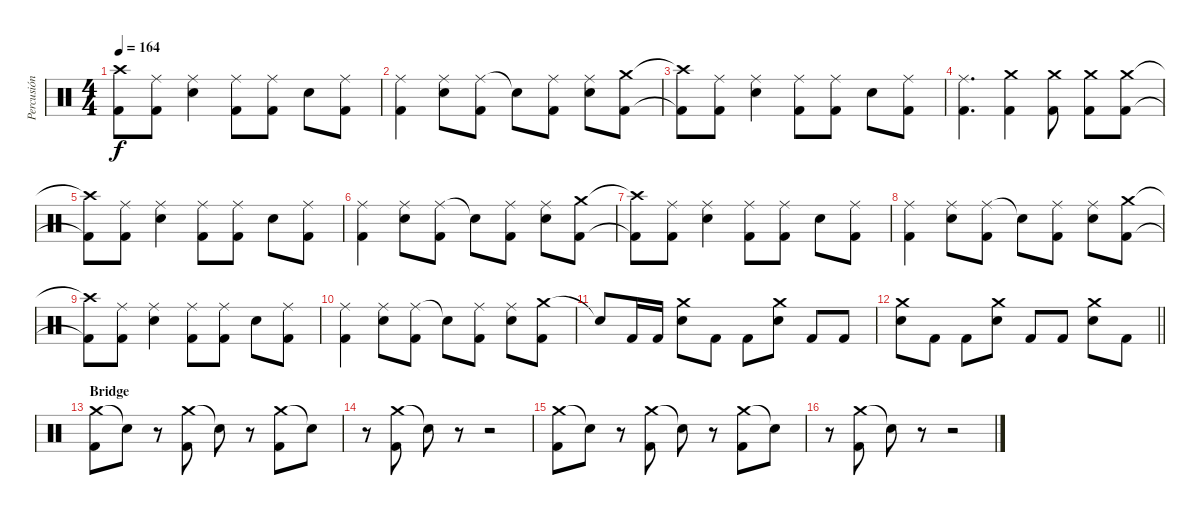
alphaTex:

\track ("Percusión" "Percusión") {instrument percussion}
\staff
\articulation defaults
\ts (4 4)
\tempo 164
\clef neutral
\ks c
("Crash high (hit)"{t} "Kick (hit) 2"{t}).8{dy f} ("Ride (middle)" "Kick (hit) 2").8 ("Ride (middle)" "Snare (hit) 2").4 ("Ride (middle)" "Kick (hit) 2").8 ("Ride (middle)" "Kick (hit) 2").8 "Snare (hit) 2".8 ("Ride (middle)" "Kick (hit) 2").8 |
("Ride (middle)" "Kick (hit) 2").4 ("Ride (middle)" "Snare (hit) 2").8 ("Ride (middle)" "Kick (hit) 2").8 "Snare (hit)"{t}.8 ("Ride (middle)" "Kick (hit) 2").8 ("Ride (middle)" "Snare (hit) 2").8 ("Crash medium (hit)" "Kick (hit) 2").8 |
("Crash high (hit)"{t} "Kick (hit) 2"{t}).8 ("Ride (middle)" "Kick (hit) 2").8 ("Ride (middle)" "Snare (hit) 2").4 ("Ride (middle)" "Kick (hit) 2").8 ("Ride (middle)" "Kick (hit) 2").8 "Snare (hit) 2".8 ("Ride (middle)" "Kick (hit) 2").8 |
("Ride (middle)" "Kick (hit) 2").4{d} ("Crash medium (hit)" "Kick (hit) 2").4 ("Crash medium (hit)" "Kick (hit) 2").8 ("Crash medium (hit)" "Kick (hit) 2").8 ("Crash medium (hit)" "Kick (hit) 2").8 |
("Crash high (hit)"{t} "Kick (hit) 2"{t}).8 ("Ride (middle)" "Kick (hit) 2").8 ("Ride (middle)" "Snare (hit) 2").4 ("Ride (middle)" "Kick (hit) 2").8 ("Ride (middle)" "Kick (hit) 2").8 "Snare (hit) 2".8 ("Ride (middle)" "Kick (hit) 2").8 |
("Ride (middle)" "Kick (hit) 2").4 ("Ride (middle)" "Snare (hit) 2").8 ("Ride (middle)" "Kick (hit) 2").8 "Snare (hit)"{t}.8 ("Ride (middle)" "Kick (hit) 2").8 ("Ride (middle)" "Snare (hit) 2").8 ("Crash medium (hit)" "Kick (hit) 2").8 |
("Crash high (hit)"{t} "Kick (hit) 2"{t}).8 ("Ride (middle)" "Kick (hit) 2").8 ("Ride (middle)" "Snare (hit) 2").4 ("Ride (middle)" "Kick (hit) 2").8 ("Ride (middle)" "Kick (hit) 2").8 "Snare (hit) 2".8 ("Ride (middle)" "Kick (hit) 2").8 |
("Ride (middle)" "Kick (hit) 2").4 ("Ride (middle)" "Snare (hit) 2").8 ("Ride (middle)" "Kick (hit) 2").8 "Snare (hit)"{t}.8 ("Ride (middle)" "Kick (hit) 2").8 ("Ride (middle)" "Snare (hit) 2").8 ("Crash medium (hit)" "Kick (hit) 2").8 |
("Crash high (hit)"{t} "Kick (hit) 2"{t}).8 ("Ride (middle)" "Kick (hit) 2").8 ("Ride (middle)" "Snare (hit) 2").4 ("Ride (middle)" "Kick (hit) 2").8 ("Ride (middle)" "Kick (hit) 2").8 "Snare (hit) 2".8 ("Ride (middle)" "Kick (hit) 2").8 |
("Ride (middle)" "Kick (hit) 2").4 ("Ride (middle)" "Snare (hit) 2").8 ("Ride (middle)" "Kick (hit) 2").8 "Snare (hit)"{t}.8 ("Ride (middle)" "Kick (hit) 2").8 ("Ride (middle)" "Snare (hit) 2").8 ("Crash medium (hit)" "Kick (hit) 2").8 |
"Snare (hit)"{t}.8 "Kick (hit) 2".16 "Kick (hit) 2".16 ("Crash medium (hit)" "Snare (hit) 2").8 "Kick (hit) 2".8 "Kick (hit) 2".8 ("Crash medium (hit)" "Snare (hit) 2").8 "Kick (hit) 2".8 "Kick (hit) 2".8 |
\barLineRight lightlight
("Crash medium (hit)" "Snare (hit) 2").8 "Kick (hit) 2".8 "Kick (hit) 2".8 ("Crash medium (hit)" "Snare (hit) 2").8 "Kick (hit) 2".8 "Kick (hit) 2".8 ("Crash medium (hit)" "Snare (hit) 2").8 "Kick (hit) 2".8 |
\section ("" "Bridge")
("Crash medium (hit)" "Kick (hit) 2").8 "Snare (hit)"{t}.8 r.8 ("Crash medium (hit)" "Kick (hit) 2").8 "Snare (hit)"{t}.8 r.8 ("Crash medium (hit)" "Kick (hit) 2").8 "Snare (hit)"{t}.8 |
r.8 ("Crash medium (hit)" "Kick (hit) 2").8 "Snare (hit)"{t}.8 r.8 r.2 |
("Crash medium (hit)" "Kick (hit) 2").8 "Snare (hit)"{t}.8 r.8 ("Crash medium (hit)" "Kick (hit) 2").8 "Snare (hit)"{t}.8 r.8 ("Crash medium (hit)" "Kick (hit) 2").8 "Snare (hit)"{t}.8 |
r.8 ("Crash medium (hit)" "Kick (hit) 2").8 "Snare (hit)"{t}.8 r.8 r.2
